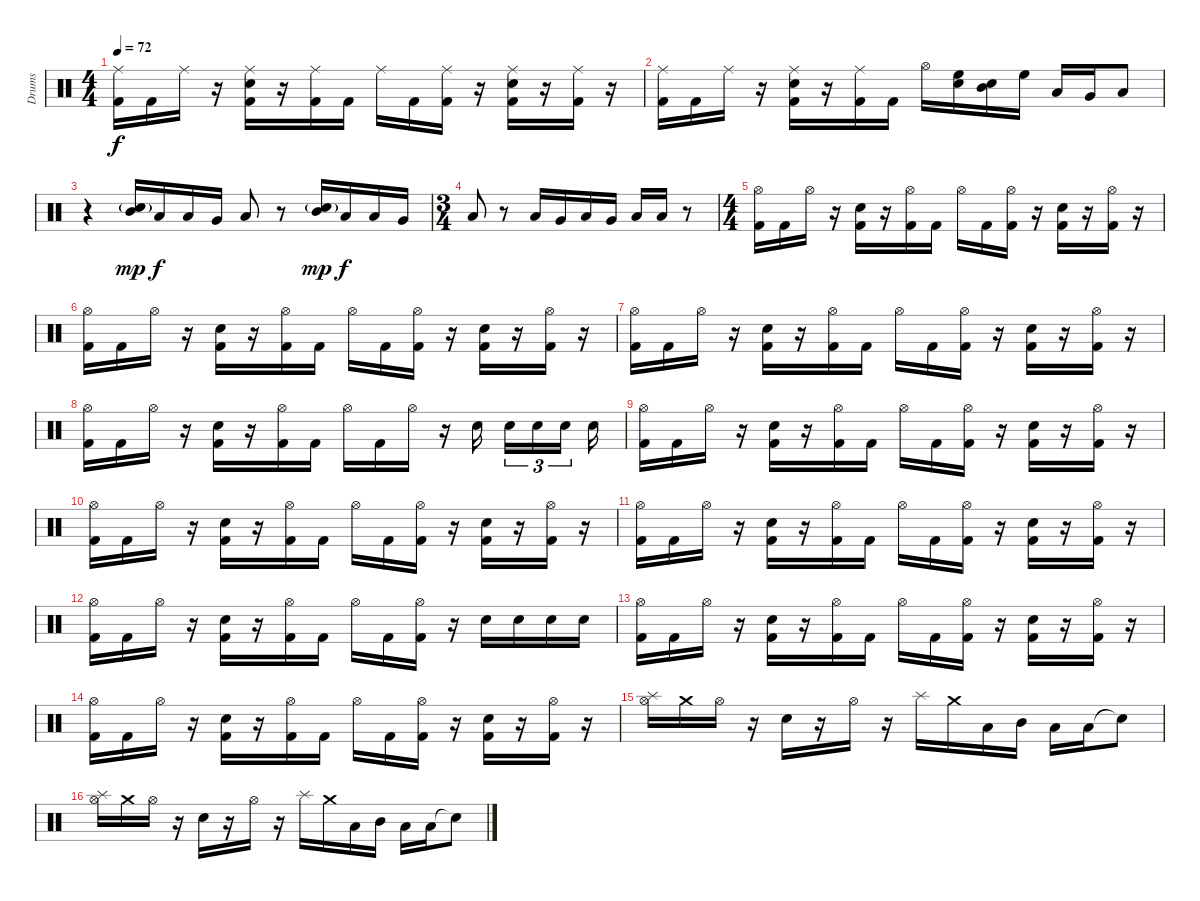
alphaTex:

\track ("Drums" "Drums") {instrument percussion}
\staff {score}
\articulation defaults
\ts (4 4)
\tempo 72
\clef neutral
\ks c
("Ride (middle)" "Kick (hit) 2").16{dy f} "Kick (hit) 2".16 "Ride (middle)".16 r.16 ("Ride (middle)" "Snare (hit) 2" "Kick (hit) 2").16 r.16 ("Ride (middle)" "Kick (hit) 2").16 "Kick (hit) 2".16 "Ride (middle)".16 "Kick (hit) 2".16 ("Ride (middle)" "Kick (hit) 2").16 r.16 ("Ride (middle)" "Snare (hit) 2" "Kick (hit) 2").16 r.16 ("Ride (middle)" "Kick (hit) 2").16 r.16 |
("Ride (middle)" "Kick (hit) 2").16 "Kick (hit) 2".16 "Ride (middle)".16 r.16 ("Ride (middle)" "Snare (hit) 2" "Kick (hit) 2").16 r.16 ("Ride (middle)" "Kick (hit) 2").16 "Kick (hit) 2".16 "Hi-Hat (open)".16 ("Snare (hit) 2" "High Floor Tom (hit)").16 ("Snare (hit) 2" "Mid Tom (hit)").16 "High Floor Tom (hit)".16 "Low Tom (hit)".16 "Very Low Tom (hit)".16 "Low Floor Tom (hit)".8 |
r.4 ("Snare (hit) 2"{g} "Mid Tom (hit)").16{dy mp} "Low Tom (hit)".16{dy f} "Low Tom (hit)".16 "Very Low Tom (hit)".16 "Low Floor Tom (hit)".8 r.8 ("Snare (hit) 2"{g} "Mid Tom (hit)").16{dy mp} "Low Tom (hit)".16{dy f} "Low Tom (hit)".16 "Very Low Tom (hit)".16 |
\ts (3 4)
"Low Floor Tom (hit)".8 r.8 "Low Floor Tom (hit)".16 "Very Low Tom (hit)".16 "Low Floor Tom (hit)".16 "Very Low Tom (hit)".16 "Low Floor Tom (hit)".16 "Low Floor Tom (hit)".16 r.8 |
\ts (4 4)
("Hi-Hat (open)" "Kick (hit) 2").16 "Kick (hit) 2".16 "Hi-Hat (open)".16 r.16 ("Snare (hit) 2" "Kick (hit) 2").16 r.16 ("Hi-Hat (open)" "Kick (hit) 2").16 "Kick (hit) 2".16 "Hi-Hat (open)".16 "Kick (hit) 2".16 ("Hi-Hat (open)" "Kick (hit) 2").16 r.16 ("Snare (hit) 2" "Kick (hit) 2").16 r.16 ("Hi-Hat (open)" "Kick (hit) 2").16 r.16 |
("Hi-Hat (open)" "Kick (hit) 2").16 "Kick (hit) 2".16 "Hi-Hat (open)".16 r.16 ("Snare (hit) 2" "Kick (hit) 2").16 r.16 ("Hi-Hat (open)" "Kick (hit) 2").16 "Kick (hit) 2".16 "Hi-Hat (open)".16 "Kick (hit) 2".16 ("Hi-Hat (open)" "Kick (hit) 2").16 r.16 ("Snare (hit) 2" "Kick (hit) 2").16 r.16 ("Hi-Hat (open)" "Kick (hit) 2").16 r.16 |
("Hi-Hat (open)" "Kick (hit) 2").16 "Kick (hit) 2".16 "Hi-Hat (open)".16 r.16 ("Snare (hit) 2" "Kick (hit) 2").16 r.16 ("Hi-Hat (open)" "Kick (hit) 2").16 "Kick (hit) 2".16 "Hi-Hat (open)".16 "Kick (hit) 2".16 ("Hi-Hat (open)" "Kick (hit) 2").16 r.16 ("Snare (hit) 2" "Kick (hit) 2").16 r.16 ("Hi-Hat (open)" "Kick (hit) 2").16 r.16 |
("Hi-Hat (open)" "Kick (hit) 2").16 "Kick (hit) 2".16 "Hi-Hat (open)".16 r.16 ("Snare (hit) 2" "Kick (hit) 2").16 r.16 ("Hi-Hat (open)" "Kick (hit) 2").16 "Kick (hit) 2".16 "Hi-Hat (open)".16 "Kick (hit) 2".16 "Hi-Hat (open)".16 r.16 "Snare (hit) 2".16{beam splitsecondary} "Snare (hit) 2".16{tu (3 2)} "Snare (hit) 2".16{tu (3 2)} "Snare (hit) 2".16{tu (3 2) beam splitsecondary} "Snare (hit) 2".16 |
("Hi-Hat (open)" "Kick (hit) 2").16 "Kick (hit) 2".16 "Hi-Hat (open)".16 r.16 ("Snare (hit) 2" "Kick (hit) 2").16 r.16 ("Hi-Hat (open)" "Kick (hit) 2").16 "Kick (hit) 2".16 "Hi-Hat (open)".16 "Kick (hit) 2".16 ("Hi-Hat (open)" "Kick (hit) 2").16 r.16 ("Snare (hit) 2" "Kick (hit) 2").16 r.16 ("Hi-Hat (open)" "Kick (hit) 2").16 r.16 |
("Hi-Hat (open)" "Kick (hit) 2").16 "Kick (hit) 2".16 "Hi-Hat (open)".16 r.16 ("Snare (hit) 2" "Kick (hit) 2").16 r.16 ("Hi-Hat (open)" "Kick (hit) 2").16 "Kick (hit) 2".16 "Hi-Hat (open)".16 "Kick (hit) 2".16 ("Hi-Hat (open)" "Kick (hit) 2").16 r.16 ("Snare (hit) 2" "Kick (hit) 2").16 r.16 ("Hi-Hat (open)" "Kick (hit) 2").16 r.16 |
("Hi-Hat (open)" "Kick (hit) 2").16 "Kick (hit) 2".16 "Hi-Hat (open)".16 r.16 ("Snare (hit) 2" "Kick (hit) 2").16 r.16 ("Hi-Hat (open)" "Kick (hit) 2").16 "Kick (hit) 2".16 "Hi-Hat (open)".16 "Kick (hit) 2".16 ("Hi-Hat (open)" "Kick (hit) 2").16 r.16 ("Snare (hit) 2" "Kick (hit) 2").16 r.16 ("Hi-Hat (open)" "Kick (hit) 2").16 r.16 |
("Hi-Hat (open)" "Kick (hit) 2").16 "Kick (hit) 2".16 "Hi-Hat (open)".16 r.16 ("Snare (hit) 2" "Kick (hit) 2").16 r.16 ("Hi-Hat (open)" "Kick (hit) 2").16 "Kick (hit) 2".16 "Hi-Hat (open)".16 "Kick (hit) 2".16 ("Hi-Hat (open)" "Kick (hit) 2").16 r.16 "Electric Snare (hit)".16 "Electric Snare (hit)".16 "Electric Snare (hit)".16 "Electric Snare (hit)".16 |
("Hi-Hat (open)" "Kick (hit) 2").16 "Kick (hit) 2".16 "Hi-Hat (open)".16 r.16 ("Snare (hit) 2" "Kick (hit) 2").16 r.16 ("Hi-Hat (open)" "Kick (hit) 2").16 "Kick (hit) 2".16 "Hi-Hat (open)".16 "Kick (hit) 2".16 ("Hi-Hat (open)" "Kick (hit) 2").16 r.16 ("Snare (hit) 2" "Kick (hit) 2").16 r.16 ("Hi-Hat (open)" "Kick (hit) 2").16 r.16 |
("Hi-Hat (open)" "Kick (hit) 2").16 "Kick (hit) 2".16 "Hi-Hat (open)".16 r.16 ("Snare (hit) 2" "Kick (hit) 2").16 r.16 ("Hi-Hat (open)" "Kick (hit) 2").16 "Kick (hit) 2".16 "Hi-Hat (open)".16 "Kick (hit) 2".16 ("Hi-Hat (open)" "Kick (hit) 2").16 r.16 ("Snare (hit) 2" "Kick (hit) 2").16 r.16 ("Hi-Hat (open)" "Kick (hit) 2").16 r.16 |
("Splash (hit)" "Hi-Hat (open)").16 "Crash medium (hit)".16 "Hi-Hat (open)".16 r.16 "Snare (hit) 2".16 r.16 "Hi-Hat (open)".16 r.16 "Splash (hit)".16 "Crash medium (hit)".16 "Low Tom (hit)".16 "Mid Tom (hit)".16 "Low Tom (hit)".16 "Low Tom (hit)".16 "Snare (hit)"{t}.8 |
("Splash (hit)" "Hi-Hat (open)").16 "Crash medium (hit)".16 "Hi-Hat (open)".16 r.16 "Snare (hit) 2".16 r.16 "Hi-Hat (open)".16 r.16 "Splash (hit)".16 "Crash medium (hit)".16 "Low Tom (hit)".16 "Mid Tom (hit)".16 "Low Tom (hit)".16 "Low Tom (hit)".16 "Snare (hit)"{t}.8
